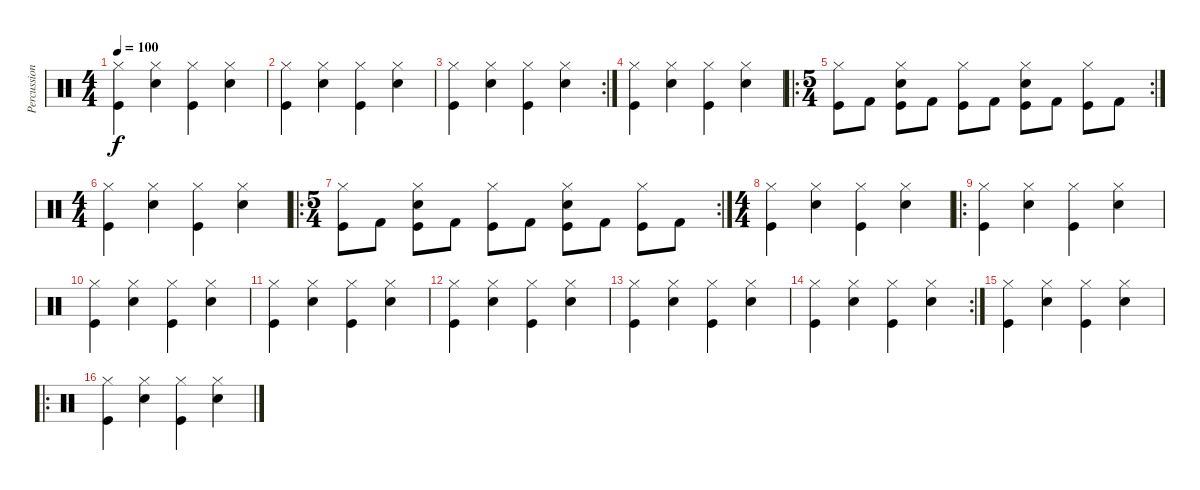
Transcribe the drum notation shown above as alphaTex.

\track ("Percussion" "Percussion") {instrument percussion}
\staff {score}
\articulation defaults
\ts (4 4)
\tempo 100
\clef neutral
\ks c
("Hi-Hat (closed)" "Kick (hit)").4{dy f} ("Hi-Hat (closed)" "Electric Snare (hit)").4 ("Hi-Hat (closed)" "Kick (hit)").4 ("Hi-Hat (closed)" "Electric Snare (hit)").4 |
("Hi-Hat (closed)" "Kick (hit)").4 ("Hi-Hat (closed)" "Electric Snare (hit)").4 ("Hi-Hat (closed)" "Kick (hit)").4 ("Hi-Hat (closed)" "Electric Snare (hit)").4 |
\rc 2
("Hi-Hat (closed)" "Kick (hit)").4 ("Hi-Hat (closed)" "Electric Snare (hit)").4 ("Hi-Hat (closed)" "Kick (hit)").4 ("Hi-Hat (closed)" "Electric Snare (hit)").4 |
("Hi-Hat (closed)" "Kick (hit)").4 ("Hi-Hat (closed)" "Electric Snare (hit)").4 ("Hi-Hat (closed)" "Kick (hit)").4 ("Hi-Hat (closed)" "Electric Snare (hit)").4 |
\ro
\rc 2
\ts (5 4)
("Hi-Hat (closed)" "Kick (hit)").8 "Kick (hit) 2".8 ("Hi-Hat (closed)" "Electric Snare (hit)" "Kick (hit)").8 "Kick (hit) 2".8 ("Hi-Hat (closed)" "Kick (hit)").8 "Kick (hit) 2".8 ("Hi-Hat (closed)" "Electric Snare (hit)" "Kick (hit)").8 "Kick (hit) 2".8 ("Hi-Hat (closed)" "Kick (hit)").8 "Kick (hit) 2".8 |
\ts (4 4)
("Hi-Hat (closed)" "Kick (hit)").4 ("Hi-Hat (closed)" "Electric Snare (hit)").4 ("Hi-Hat (closed)" "Kick (hit)").4 ("Hi-Hat (closed)" "Electric Snare (hit)").4 |
\ro
\rc 2
\ts (5 4)
("Hi-Hat (closed)" "Kick (hit)").8 "Kick (hit) 2".8 ("Hi-Hat (closed)" "Electric Snare (hit)" "Kick (hit)").8 "Kick (hit) 2".8 ("Hi-Hat (closed)" "Kick (hit)").8 "Kick (hit) 2".8 ("Hi-Hat (closed)" "Electric Snare (hit)" "Kick (hit)").8 "Kick (hit) 2".8 ("Hi-Hat (closed)" "Kick (hit)").8 "Kick (hit) 2".8 |
\ts (4 4)
("Hi-Hat (closed)" "Kick (hit)").4 ("Hi-Hat (closed)" "Electric Snare (hit)").4 ("Hi-Hat (closed)" "Kick (hit)").4 ("Hi-Hat (closed)" "Electric Snare (hit)").4 |
\ro
("Hi-Hat (closed)" "Kick (hit)").4 ("Hi-Hat (closed)" "Electric Snare (hit)").4 ("Hi-Hat (closed)" "Kick (hit)").4 ("Hi-Hat (closed)" "Electric Snare (hit)").4 |
("Hi-Hat (closed)" "Kick (hit)").4 ("Hi-Hat (closed)" "Electric Snare (hit)").4 ("Hi-Hat (closed)" "Kick (hit)").4 ("Hi-Hat (closed)" "Electric Snare (hit)").4 |
("Hi-Hat (closed)" "Kick (hit)").4 ("Hi-Hat (closed)" "Electric Snare (hit)").4 ("Hi-Hat (closed)" "Kick (hit)").4 ("Hi-Hat (closed)" "Electric Snare (hit)").4 |
("Hi-Hat (closed)" "Kick (hit)").4 ("Hi-Hat (closed)" "Electric Snare (hit)").4 ("Hi-Hat (closed)" "Kick (hit)").4 ("Hi-Hat (closed)" "Electric Snare (hit)").4 |
("Hi-Hat (closed)" "Kick (hit)").4 ("Hi-Hat (closed)" "Electric Snare (hit)").4 ("Hi-Hat (closed)" "Kick (hit)").4 ("Hi-Hat (closed)" "Electric Snare (hit)").4 |
\rc 2
("Hi-Hat (closed)" "Kick (hit)").4 ("Hi-Hat (closed)" "Electric Snare (hit)").4 ("Hi-Hat (closed)" "Kick (hit)").4 ("Hi-Hat (closed)" "Electric Snare (hit)").4 |
("Hi-Hat (closed)" "Kick (hit)").4 ("Hi-Hat (closed)" "Electric Snare (hit)").4 ("Hi-Hat (closed)" "Kick (hit)").4 ("Hi-Hat (closed)" "Electric Snare (hit)").4 |
\ro
("Hi-Hat (closed)" "Kick (hit)").4 ("Hi-Hat (closed)" "Electric Snare (hit)").4 ("Hi-Hat (closed)" "Kick (hit)").4 ("Hi-Hat (closed)" "Electric Snare (hit)").4
